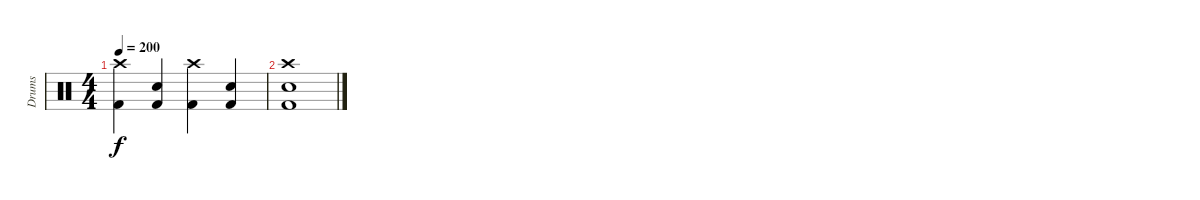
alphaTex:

\track ("Drums" "Drums") {instrument percussion}
\staff {score}
\articulation defaults
\ts (4 4)
\tempo 200
\clef neutral
\ks c
("Crash high (hit)" "Kick (hit) 2").4{dy f} ("Electric Snare (hit)" "Kick (hit) 2").4 ("Crash high (hit)" "Kick (hit) 2").4 ("Electric Snare (hit)" "Kick (hit) 2").4 |
("Crash high (hit)" "Electric Snare (hit)" "Kick (hit) 2").1
